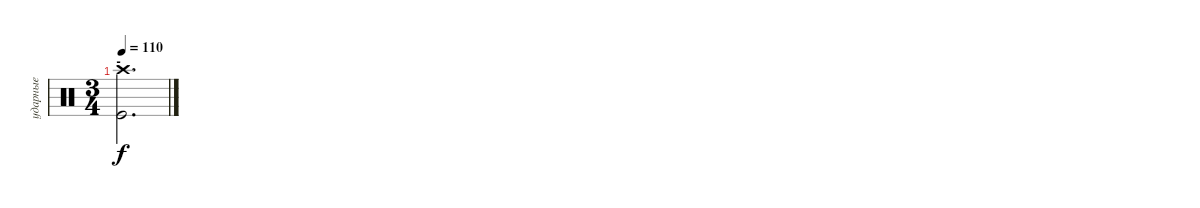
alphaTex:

\track ("ударные" "ударные") {instrument percussion}
\staff {score}
\articulation defaults
\ts (3 4)
\section ("" "-")
\tempo 110
\clef neutral
\ks c
("Crash high (hit)" "Kick (hit)").2{d dy f}
